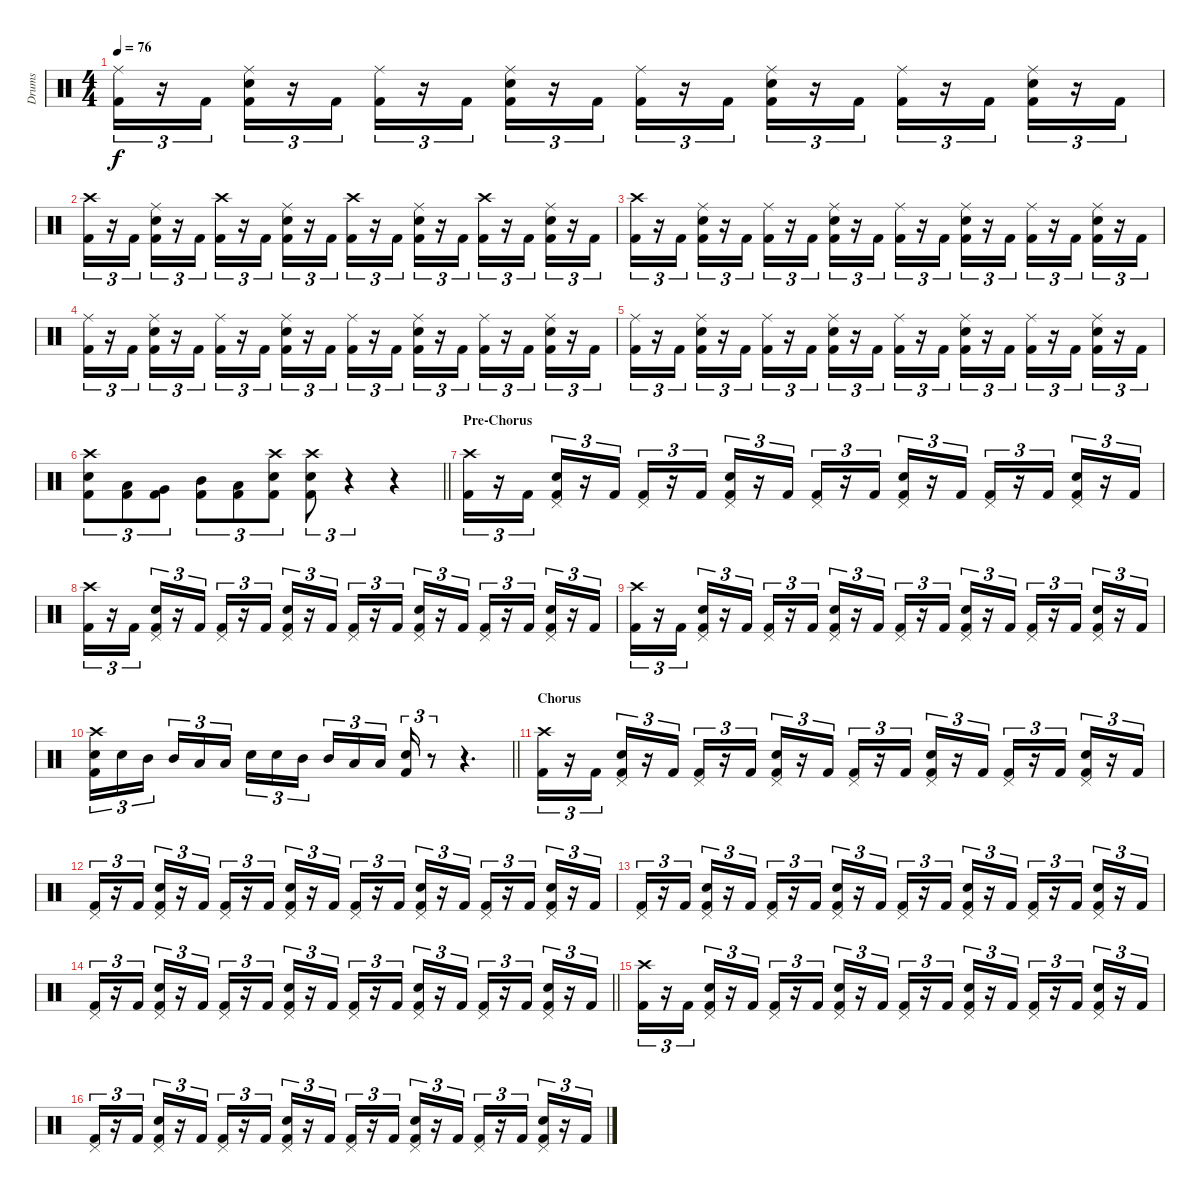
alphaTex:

\track ("Drums" "Drums") {instrument percussion}
\staff {score}
\articulation defaults
\ts (4 4)
\tempo 76
\clef neutral
\ks c
("Ride (middle)" "Kick (hit) 2").16{tu (3 2) dy f} r.16{tu (3 2)} "Kick (hit) 2".16{tu (3 2)} ("Ride (middle)" "Snare (hit) 2" "Kick (hit) 2").16{tu (3 2)} r.16{tu (3 2)} "Kick (hit) 2".16{tu (3 2)} ("Ride (middle)" "Kick (hit) 2").16{tu (3 2)} r.16{tu (3 2)} "Kick (hit) 2".16{tu (3 2)} ("Ride (middle)" "Snare (hit) 2" "Kick (hit) 2").16{tu (3 2)} r.16{tu (3 2)} "Kick (hit) 2".16{tu (3 2)} ("Ride (middle)" "Kick (hit) 2").16{tu (3 2)} r.16{tu (3 2)} "Kick (hit) 2".16{tu (3 2)} ("Ride (middle)" "Snare (hit) 2" "Kick (hit) 2").16{tu (3 2)} r.16{tu (3 2)} "Kick (hit) 2".16{tu (3 2)} ("Ride (middle)" "Kick (hit) 2").16{tu (3 2)} r.16{tu (3 2)} "Kick (hit) 2".16{tu (3 2)} ("Ride (middle)" "Snare (hit) 2" "Kick (hit) 2").16{tu (3 2)} r.16{tu (3 2)} "Kick (hit) 2".16{tu (3 2)} |
("Crash high (hit)" "Kick (hit) 2").16{tu (3 2)} r.16{tu (3 2)} "Kick (hit) 2".16{tu (3 2)} ("Ride (middle)" "Snare (hit) 2" "Kick (hit) 2").16{tu (3 2)} r.16{tu (3 2)} "Kick (hit) 2".16{tu (3 2)} ("Crash high (hit)" "Kick (hit) 2").16{tu (3 2)} r.16{tu (3 2)} "Kick (hit) 2".16{tu (3 2)} ("Ride (middle)" "Snare (hit) 2" "Kick (hit) 2").16{tu (3 2)} r.16{tu (3 2)} "Kick (hit) 2".16{tu (3 2)} ("Crash high (hit)" "Kick (hit) 2").16{tu (3 2)} r.16{tu (3 2)} "Kick (hit) 2".16{tu (3 2)} ("Ride (middle)" "Snare (hit) 2" "Kick (hit) 2").16{tu (3 2)} r.16{tu (3 2)} "Kick (hit) 2".16{tu (3 2)} ("Crash high (hit)" "Kick (hit) 2").16{tu (3 2)} r.16{tu (3 2)} "Kick (hit) 2".16{tu (3 2)} ("Ride (middle)" "Snare (hit) 2" "Kick (hit) 2").16{tu (3 2)} r.16{tu (3 2)} "Kick (hit) 2".16{tu (3 2)} |
("Crash high (hit)" "Kick (hit) 2").16{tu (3 2)} r.16{tu (3 2)} "Kick (hit) 2".16{tu (3 2)} ("Ride (middle)" "Snare (hit) 2" "Kick (hit) 2").16{tu (3 2)} r.16{tu (3 2)} "Kick (hit) 2".16{tu (3 2)} ("Ride (middle)" "Kick (hit) 2").16{tu (3 2)} r.16{tu (3 2)} "Kick (hit) 2".16{tu (3 2)} ("Ride (middle)" "Snare (hit) 2" "Kick (hit) 2").16{tu (3 2)} r.16{tu (3 2)} "Kick (hit) 2".16{tu (3 2)} ("Ride (middle)" "Kick (hit) 2").16{tu (3 2)} r.16{tu (3 2)} "Kick (hit) 2".16{tu (3 2)} ("Ride (middle)" "Snare (hit) 2" "Kick (hit) 2").16{tu (3 2)} r.16{tu (3 2)} "Kick (hit) 2".16{tu (3 2)} ("Ride (middle)" "Kick (hit) 2").16{tu (3 2)} r.16{tu (3 2)} "Kick (hit) 2".16{tu (3 2)} ("Ride (middle)" "Snare (hit) 2" "Kick (hit) 2").16{tu (3 2)} r.16{tu (3 2)} "Kick (hit) 2".16{tu (3 2)} |
("Ride (middle)" "Kick (hit) 2").16{tu (3 2)} r.16{tu (3 2)} "Kick (hit) 2".16{tu (3 2)} ("Ride (middle)" "Snare (hit) 2" "Kick (hit) 2").16{tu (3 2)} r.16{tu (3 2)} "Kick (hit) 2".16{tu (3 2)} ("Ride (middle)" "Kick (hit) 2").16{tu (3 2)} r.16{tu (3 2)} "Kick (hit) 2".16{tu (3 2)} ("Ride (middle)" "Snare (hit) 2" "Kick (hit) 2").16{tu (3 2)} r.16{tu (3 2)} "Kick (hit) 2".16{tu (3 2)} ("Ride (middle)" "Kick (hit) 2").16{tu (3 2)} r.16{tu (3 2)} "Kick (hit) 2".16{tu (3 2)} ("Ride (middle)" "Snare (hit) 2" "Kick (hit) 2").16{tu (3 2)} r.16{tu (3 2)} "Kick (hit) 2".16{tu (3 2)} ("Ride (middle)" "Kick (hit) 2").16{tu (3 2)} r.16{tu (3 2)} "Kick (hit) 2".16{tu (3 2)} ("Ride (middle)" "Snare (hit) 2" "Kick (hit) 2").16{tu (3 2)} r.16{tu (3 2)} "Kick (hit) 2".16{tu (3 2)} |
("Ride (middle)" "Kick (hit) 2").16{tu (3 2)} r.16{tu (3 2)} "Kick (hit) 2".16{tu (3 2)} ("Ride (middle)" "Snare (hit) 2" "Kick (hit) 2").16{tu (3 2)} r.16{tu (3 2)} "Kick (hit) 2".16{tu (3 2)} ("Ride (middle)" "Kick (hit) 2").16{tu (3 2)} r.16{tu (3 2)} "Kick (hit) 2".16{tu (3 2)} ("Ride (middle)" "Snare (hit) 2" "Kick (hit) 2").16{tu (3 2)} r.16{tu (3 2)} "Kick (hit) 2".16{tu (3 2)} ("Ride (middle)" "Kick (hit) 2").16{tu (3 2)} r.16{tu (3 2)} "Kick (hit) 2".16{tu (3 2)} ("Ride (middle)" "Snare (hit) 2" "Kick (hit) 2").16{tu (3 2)} r.16{tu (3 2)} "Kick (hit) 2".16{tu (3 2)} ("Ride (middle)" "Kick (hit) 2").16{tu (3 2)} r.16{tu (3 2)} "Kick (hit) 2".16{tu (3 2)} ("Ride (middle)" "Snare (hit) 2" "Kick (hit) 2").16{tu (3 2)} r.16{tu (3 2)} "Kick (hit) 2".16{tu (3 2)} |
\barLineRight lightlight
("Crash high (hit)" "Snare (hit) 2" "Kick (hit) 2").8{tu (3 2)} ("Low Tom (hit)" "Kick (hit) 2").8{tu (3 2)} ("Very Low Tom (hit)" "Kick (hit) 2").8{tu (3 2)} ("Mid Tom (hit)" "Kick (hit) 2").8{tu (3 2)} ("Low Tom (hit)" "Kick (hit) 2").8{tu (3 2)} ("Crash high (hit)" "Snare (hit) 2" "Kick (hit) 2").8{tu (3 2)} ("Crash high (hit)" "Snare (hit) 2" "Kick (hit) 2").8{tu (3 2)} r.4{tu (3 2)} r.4 |
\section ("" "Pre-Chorus")
("Crash high (hit)" "Kick (hit) 2").16{tu (3 2)} r.16{tu (3 2)} "Kick (hit) 2".16{tu (3 2)} ("Pedal Hi-Hat (hit)" "Snare (hit) 2" "Kick (hit) 2").16{tu (3 2)} r.16{tu (3 2)} "Kick (hit) 2".16{tu (3 2)} ("Pedal Hi-Hat (hit)" "Kick (hit) 2").16{tu (3 2)} r.16{tu (3 2)} "Kick (hit) 2".16{tu (3 2)} ("Pedal Hi-Hat (hit)" "Snare (hit) 2" "Kick (hit) 2").16{tu (3 2)} r.16{tu (3 2)} "Kick (hit) 2".16{tu (3 2)} ("Pedal Hi-Hat (hit)" "Kick (hit) 2").16{tu (3 2)} r.16{tu (3 2)} "Kick (hit) 2".16{tu (3 2)} ("Pedal Hi-Hat (hit)" "Snare (hit) 2" "Kick (hit) 2").16{tu (3 2)} r.16{tu (3 2)} "Kick (hit) 2".16{tu (3 2)} ("Pedal Hi-Hat (hit)" "Kick (hit) 2").16{tu (3 2)} r.16{tu (3 2)} "Kick (hit) 2".16{tu (3 2)} ("Pedal Hi-Hat (hit)" "Snare (hit) 2" "Kick (hit) 2").16{tu (3 2)} r.16{tu (3 2)} "Kick (hit) 2".16{tu (3 2)} |
("Crash high (hit)" "Kick (hit) 2").16{tu (3 2)} r.16{tu (3 2)} "Kick (hit) 2".16{tu (3 2)} ("Pedal Hi-Hat (hit)" "Snare (hit) 2" "Kick (hit) 2").16{tu (3 2)} r.16{tu (3 2)} "Kick (hit) 2".16{tu (3 2)} ("Pedal Hi-Hat (hit)" "Kick (hit) 2").16{tu (3 2)} r.16{tu (3 2)} "Kick (hit) 2".16{tu (3 2)} ("Pedal Hi-Hat (hit)" "Snare (hit) 2" "Kick (hit) 2").16{tu (3 2)} r.16{tu (3 2)} "Kick (hit) 2".16{tu (3 2)} ("Pedal Hi-Hat (hit)" "Kick (hit) 2").16{tu (3 2)} r.16{tu (3 2)} "Kick (hit) 2".16{tu (3 2)} ("Pedal Hi-Hat (hit)" "Snare (hit) 2" "Kick (hit) 2").16{tu (3 2)} r.16{tu (3 2)} "Kick (hit) 2".16{tu (3 2)} ("Pedal Hi-Hat (hit)" "Kick (hit) 2").16{tu (3 2)} r.16{tu (3 2)} "Kick (hit) 2".16{tu (3 2)} ("Pedal Hi-Hat (hit)" "Snare (hit) 2" "Kick (hit) 2").16{tu (3 2)} r.16{tu (3 2)} "Kick (hit) 2".16{tu (3 2)} |
("Crash high (hit)" "Kick (hit) 2").16{tu (3 2)} r.16{tu (3 2)} "Kick (hit) 2".16{tu (3 2)} ("Pedal Hi-Hat (hit)" "Snare (hit) 2" "Kick (hit) 2").16{tu (3 2)} r.16{tu (3 2)} "Kick (hit) 2".16{tu (3 2)} ("Pedal Hi-Hat (hit)" "Kick (hit) 2").16{tu (3 2)} r.16{tu (3 2)} "Kick (hit) 2".16{tu (3 2)} ("Pedal Hi-Hat (hit)" "Snare (hit) 2" "Kick (hit) 2").16{tu (3 2)} r.16{tu (3 2)} "Kick (hit) 2".16{tu (3 2)} ("Pedal Hi-Hat (hit)" "Kick (hit) 2").16{tu (3 2)} r.16{tu (3 2)} "Kick (hit) 2".16{tu (3 2)} ("Pedal Hi-Hat (hit)" "Snare (hit) 2" "Kick (hit) 2").16{tu (3 2)} r.16{tu (3 2)} "Kick (hit) 2".16{tu (3 2)} ("Pedal Hi-Hat (hit)" "Kick (hit) 2").16{tu (3 2)} r.16{tu (3 2)} "Kick (hit) 2".16{tu (3 2)} ("Pedal Hi-Hat (hit)" "Snare (hit) 2" "Kick (hit) 2").16{tu (3 2)} r.16{tu (3 2)} "Kick (hit) 2".16{tu (3 2)} |
\barLineRight lightlight
("Crash high (hit)" "Snare (hit) 2" "Kick (hit) 2").16{tu (3 2)} "Snare (hit) 2".16{tu (3 2)} "Mid Tom (hit)".16{tu (3 2) beam splitsecondary} "Mid Tom (hit)".16{tu (3 2)} "Low Tom (hit)".16{tu (3 2)} "Low Tom (hit)".16{tu (3 2)} "Snare (hit) 2".16{tu (3 2)} "Snare (hit) 2".16{tu (3 2)} "Mid Tom (hit)".16{tu (3 2) beam splitsecondary} "Mid Tom (hit)".16{tu (3 2)} "Low Tom (hit)".16{tu (3 2)} "Low Tom (hit)".16{tu (3 2)} ("Snare (hit) 2" "Kick (hit) 2").16{tu (3 2)} r.8{tu (3 2)} r.4{d} |
\section ("" "Chorus")
("Crash high (hit)" "Kick (hit) 2").16{tu (3 2)} r.16{tu (3 2)} "Kick (hit) 2".16{tu (3 2)} ("Pedal Hi-Hat (hit)" "Snare (hit) 2" "Kick (hit) 2").16{tu (3 2)} r.16{tu (3 2)} "Kick (hit) 2".16{tu (3 2)} ("Pedal Hi-Hat (hit)" "Kick (hit) 2").16{tu (3 2)} r.16{tu (3 2)} "Kick (hit) 2".16{tu (3 2)} ("Pedal Hi-Hat (hit)" "Snare (hit) 2" "Kick (hit) 2").16{tu (3 2)} r.16{tu (3 2)} "Kick (hit) 2".16{tu (3 2)} ("Pedal Hi-Hat (hit)" "Kick (hit) 2").16{tu (3 2)} r.16{tu (3 2)} "Kick (hit) 2".16{tu (3 2)} ("Pedal Hi-Hat (hit)" "Snare (hit) 2" "Kick (hit) 2").16{tu (3 2)} r.16{tu (3 2)} "Kick (hit) 2".16{tu (3 2)} ("Pedal Hi-Hat (hit)" "Kick (hit) 2").16{tu (3 2)} r.16{tu (3 2)} "Kick (hit) 2".16{tu (3 2)} ("Pedal Hi-Hat (hit)" "Snare (hit) 2" "Kick (hit) 2").16{tu (3 2)} r.16{tu (3 2)} "Kick (hit) 2".16{tu (3 2)} |
("Pedal Hi-Hat (hit)" "Kick (hit) 2").16{tu (3 2)} r.16{tu (3 2)} "Kick (hit) 2".16{tu (3 2)} ("Pedal Hi-Hat (hit)" "Snare (hit) 2" "Kick (hit) 2").16{tu (3 2)} r.16{tu (3 2)} "Kick (hit) 2".16{tu (3 2)} ("Pedal Hi-Hat (hit)" "Kick (hit) 2").16{tu (3 2)} r.16{tu (3 2)} "Kick (hit) 2".16{tu (3 2)} ("Pedal Hi-Hat (hit)" "Snare (hit) 2" "Kick (hit) 2").16{tu (3 2)} r.16{tu (3 2)} "Kick (hit) 2".16{tu (3 2)} ("Pedal Hi-Hat (hit)" "Kick (hit) 2").16{tu (3 2)} r.16{tu (3 2)} "Kick (hit) 2".16{tu (3 2)} ("Pedal Hi-Hat (hit)" "Snare (hit) 2" "Kick (hit) 2").16{tu (3 2)} r.16{tu (3 2)} "Kick (hit) 2".16{tu (3 2)} ("Pedal Hi-Hat (hit)" "Kick (hit) 2").16{tu (3 2)} r.16{tu (3 2)} "Kick (hit) 2".16{tu (3 2)} ("Pedal Hi-Hat (hit)" "Snare (hit) 2" "Kick (hit) 2").16{tu (3 2)} r.16{tu (3 2)} "Kick (hit) 2".16{tu (3 2)} |
("Pedal Hi-Hat (hit)" "Kick (hit) 2").16{tu (3 2)} r.16{tu (3 2)} "Kick (hit) 2".16{tu (3 2)} ("Pedal Hi-Hat (hit)" "Snare (hit) 2" "Kick (hit) 2").16{tu (3 2)} r.16{tu (3 2)} "Kick (hit) 2".16{tu (3 2)} ("Pedal Hi-Hat (hit)" "Kick (hit) 2").16{tu (3 2)} r.16{tu (3 2)} "Kick (hit) 2".16{tu (3 2)} ("Pedal Hi-Hat (hit)" "Snare (hit) 2" "Kick (hit) 2").16{tu (3 2)} r.16{tu (3 2)} "Kick (hit) 2".16{tu (3 2)} ("Pedal Hi-Hat (hit)" "Kick (hit) 2").16{tu (3 2)} r.16{tu (3 2)} "Kick (hit) 2".16{tu (3 2)} ("Pedal Hi-Hat (hit)" "Snare (hit) 2" "Kick (hit) 2").16{tu (3 2)} r.16{tu (3 2)} "Kick (hit) 2".16{tu (3 2)} ("Pedal Hi-Hat (hit)" "Kick (hit) 2").16{tu (3 2)} r.16{tu (3 2)} "Kick (hit) 2".16{tu (3 2)} ("Pedal Hi-Hat (hit)" "Snare (hit) 2" "Kick (hit) 2").16{tu (3 2)} r.16{tu (3 2)} "Kick (hit) 2".16{tu (3 2)} |
\barLineRight lightlight
("Pedal Hi-Hat (hit)" "Kick (hit) 2").16{tu (3 2)} r.16{tu (3 2)} "Kick (hit) 2".16{tu (3 2)} ("Pedal Hi-Hat (hit)" "Snare (hit) 2" "Kick (hit) 2").16{tu (3 2)} r.16{tu (3 2)} "Kick (hit) 2".16{tu (3 2)} ("Pedal Hi-Hat (hit)" "Kick (hit) 2").16{tu (3 2)} r.16{tu (3 2)} "Kick (hit) 2".16{tu (3 2)} ("Pedal Hi-Hat (hit)" "Snare (hit) 2" "Kick (hit) 2").16{tu (3 2)} r.16{tu (3 2)} "Kick (hit) 2".16{tu (3 2)} ("Pedal Hi-Hat (hit)" "Kick (hit) 2").16{tu (3 2)} r.16{tu (3 2)} "Kick (hit) 2".16{tu (3 2)} ("Pedal Hi-Hat (hit)" "Snare (hit) 2" "Kick (hit) 2").16{tu (3 2)} r.16{tu (3 2)} "Kick (hit) 2".16{tu (3 2)} ("Pedal Hi-Hat (hit)" "Kick (hit) 2").16{tu (3 2)} r.16{tu (3 2)} "Kick (hit) 2".16{tu (3 2)} ("Pedal Hi-Hat (hit)" "Snare (hit) 2" "Kick (hit) 2").16{tu (3 2)} r.16{tu (3 2)} "Kick (hit) 2".16{tu (3 2)} |
("Crash high (hit)" "Kick (hit) 2").16{tu (3 2)} r.16{tu (3 2)} "Kick (hit) 2".16{tu (3 2)} ("Pedal Hi-Hat (hit)" "Snare (hit) 2" "Kick (hit) 2").16{tu (3 2)} r.16{tu (3 2)} "Kick (hit) 2".16{tu (3 2)} ("Pedal Hi-Hat (hit)" "Kick (hit) 2").16{tu (3 2)} r.16{tu (3 2)} "Kick (hit) 2".16{tu (3 2)} ("Pedal Hi-Hat (hit)" "Snare (hit) 2" "Kick (hit) 2").16{tu (3 2)} r.16{tu (3 2)} "Kick (hit) 2".16{tu (3 2)} ("Pedal Hi-Hat (hit)" "Kick (hit) 2").16{tu (3 2)} r.16{tu (3 2)} "Kick (hit) 2".16{tu (3 2)} ("Pedal Hi-Hat (hit)" "Snare (hit) 2" "Kick (hit) 2").16{tu (3 2)} r.16{tu (3 2)} "Kick (hit) 2".16{tu (3 2)} ("Pedal Hi-Hat (hit)" "Kick (hit) 2").16{tu (3 2)} r.16{tu (3 2)} "Kick (hit) 2".16{tu (3 2)} ("Pedal Hi-Hat (hit)" "Snare (hit) 2" "Kick (hit) 2").16{tu (3 2)} r.16{tu (3 2)} "Kick (hit) 2".16{tu (3 2)} |
("Pedal Hi-Hat (hit)" "Kick (hit) 2").16{tu (3 2)} r.16{tu (3 2)} "Kick (hit) 2".16{tu (3 2)} ("Pedal Hi-Hat (hit)" "Snare (hit) 2" "Kick (hit) 2").16{tu (3 2)} r.16{tu (3 2)} "Kick (hit) 2".16{tu (3 2)} ("Pedal Hi-Hat (hit)" "Kick (hit) 2").16{tu (3 2)} r.16{tu (3 2)} "Kick (hit) 2".16{tu (3 2)} ("Pedal Hi-Hat (hit)" "Snare (hit) 2" "Kick (hit) 2").16{tu (3 2)} r.16{tu (3 2)} "Kick (hit) 2".16{tu (3 2)} ("Pedal Hi-Hat (hit)" "Kick (hit) 2").16{tu (3 2)} r.16{tu (3 2)} "Kick (hit) 2".16{tu (3 2)} ("Pedal Hi-Hat (hit)" "Snare (hit) 2" "Kick (hit) 2").16{tu (3 2)} r.16{tu (3 2)} "Kick (hit) 2".16{tu (3 2)} ("Pedal Hi-Hat (hit)" "Kick (hit) 2").16{tu (3 2)} r.16{tu (3 2)} "Kick (hit) 2".16{tu (3 2)} ("Pedal Hi-Hat (hit)" "Snare (hit) 2" "Kick (hit) 2").16{tu (3 2)} r.16{tu (3 2)} "Kick (hit) 2".16{tu (3 2)}
